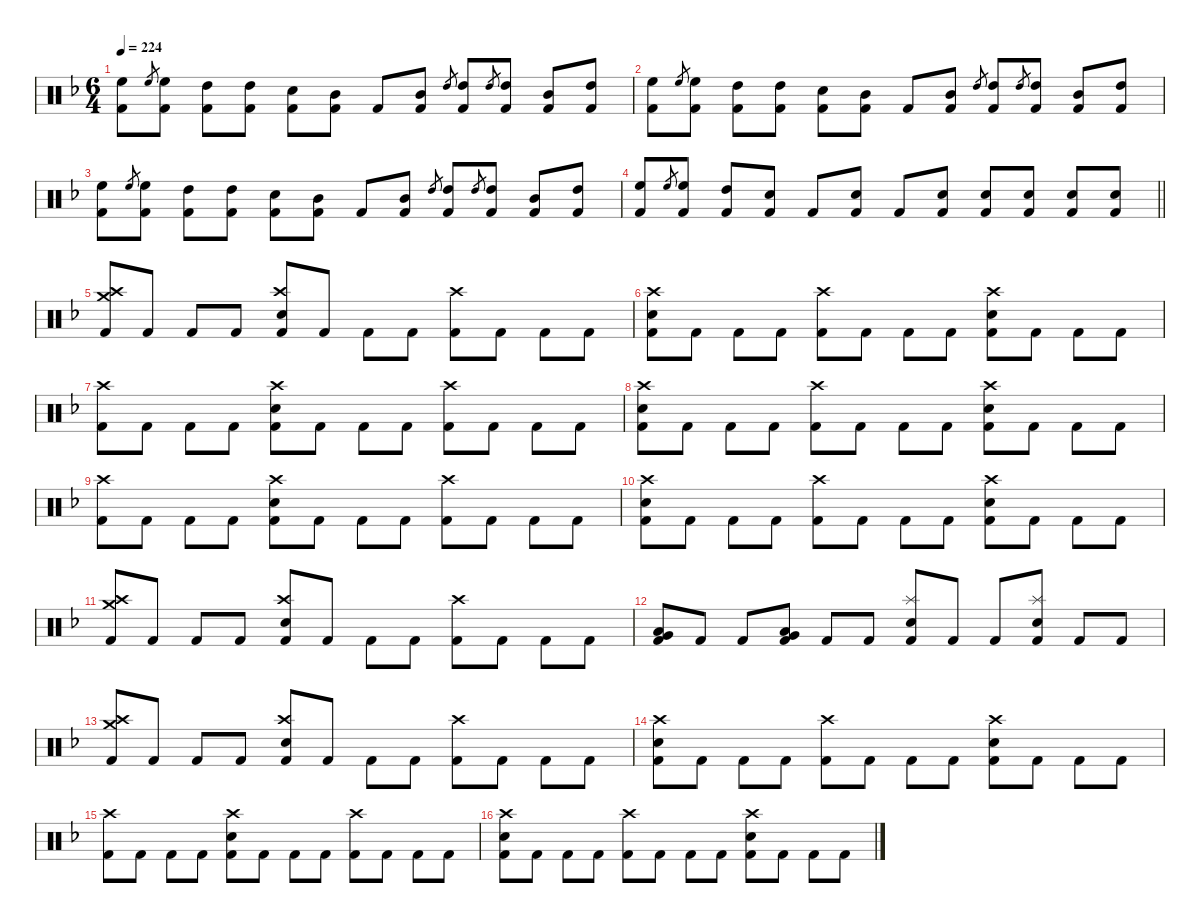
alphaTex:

\hideDynamics
\bracketExtendMode nobrackets
\singleTrackTrackNamePolicy hidden
\multiTrackTrackNamePolicy hidden
\firstSystemTrackNameMode fullname
\firstSystemTrackNameOrientation horizontal
\otherSystemsTrackNameOrientation horizontal
\track ("Drumkit" "Drums") {defaultSystemsLayout 4 instrument percussion}
\staff {score}
\articulation defaults
\ts (6 4)
\tempo 224
\clef neutral
\ks dminor
("High Floor Tom (hit)"{acc forcenatural} "Kick (hit) 2"{acc forcenatural}).8{dy f beam Down} "High Floor Tom (hit)"{acc forcenatural}.8{gr dy mf beam Up} ("High Floor Tom (hit)"{acc forcenatural} "Kick (hit) 2"{acc forcenatural}).8{dy f beam Down} ("High Tom (hit)"{acc forcenatural} "Kick (hit) 2"{acc forcenatural}).8{beam Down} ("High Tom (hit)"{acc forcenatural} "Kick (hit) 2"{acc forcenatural}).8{beam Down} ("Snare (hit) 2"{acc forcenatural} "Kick (hit) 2"{acc forcenatural}).8{beam Down} ("Mid Tom (hit)"{acc forcenatural} "Kick (hit) 2"{acc forcenatural}).8{beam Down} "Kick (hit) 2"{acc forcenatural}.8{beam Up} ("Mid Tom (hit)"{acc forcenatural} "Kick (hit) 2"{acc forcenatural}).8{beam Up} "High Tom (hit)"{acc forcenatural}.8{gr dy mf beam Up} ("High Tom (hit)"{acc forcenatural} "Kick (hit) 2"{acc forcenatural}).8{dy f beam Up} "High Tom (hit)"{acc forcenatural}.8{gr dy mf beam Up} ("High Tom (hit)"{acc forcenatural} "Kick (hit) 2"{acc forcenatural}).8{dy f beam Up} ("Mid Tom (hit)"{acc forcenatural} "Kick (hit) 2"{acc forcenatural}).8{beam Up} ("High Tom (hit)"{acc forcenatural} "Kick (hit) 2"{acc forcenatural}).8{beam Up} |
("High Floor Tom (hit)"{acc forcenatural} "Kick (hit) 2"{acc forcenatural}).8{beam Down} "High Floor Tom (hit)"{acc forcenatural}.8{gr dy mf beam Up} ("High Floor Tom (hit)"{acc forcenatural} "Kick (hit) 2"{acc forcenatural}).8{dy f beam Down} ("High Tom (hit)"{acc forcenatural} "Kick (hit) 2"{acc forcenatural}).8{beam Down} ("High Tom (hit)"{acc forcenatural} "Kick (hit) 2"{acc forcenatural}).8{beam Down} ("Snare (hit) 2"{acc forcenatural} "Kick (hit) 2"{acc forcenatural}).8{beam Down} ("Mid Tom (hit)"{acc forcenatural} "Kick (hit) 2"{acc forcenatural}).8{beam Down} "Kick (hit) 2"{acc forcenatural}.8{beam Up} ("Mid Tom (hit)"{acc forcenatural} "Kick (hit) 2"{acc forcenatural}).8{beam Up} "High Tom (hit)"{acc forcenatural}.8{gr dy mf beam Up} ("High Tom (hit)"{acc forcenatural} "Kick (hit) 2"{acc forcenatural}).8{dy f beam Up} "High Tom (hit)"{acc forcenatural}.8{gr dy mf beam Up} ("High Tom (hit)"{acc forcenatural} "Kick (hit) 2"{acc forcenatural}).8{dy f beam Up} ("Mid Tom (hit)"{acc forcenatural} "Kick (hit) 2"{acc forcenatural}).8{beam Up} ("High Tom (hit)"{acc forcenatural} "Kick (hit) 2"{acc forcenatural}).8{beam Up} |
("High Floor Tom (hit)"{acc forcenatural} "Kick (hit) 2"{acc forcenatural}).8{beam Down} "High Floor Tom (hit)"{acc forcenatural}.8{gr dy mf beam Up} ("High Floor Tom (hit)"{acc forcenatural} "Kick (hit) 2"{acc forcenatural}).8{dy f beam Down} ("High Tom (hit)"{acc forcenatural} "Kick (hit) 2"{acc forcenatural}).8{beam Down} ("High Tom (hit)"{acc forcenatural} "Kick (hit) 2"{acc forcenatural}).8{beam Down} ("Snare (hit) 2"{acc forcenatural} "Kick (hit) 2"{acc forcenatural}).8{beam Down} ("Mid Tom (hit)"{acc forcenatural} "Kick (hit) 2"{acc forcenatural}).8{beam Down} "Kick (hit) 2"{acc forcenatural}.8{beam Up} ("Mid Tom (hit)"{acc forcenatural} "Kick (hit) 2"{acc forcenatural}).8{beam Up} "High Tom (hit)"{acc forcenatural}.8{gr dy mf beam Up} ("High Tom (hit)"{acc forcenatural} "Kick (hit) 2"{acc forcenatural}).8{dy f beam Up} "High Tom (hit)"{acc forcenatural}.8{gr dy mf beam Up} ("High Tom (hit)"{acc forcenatural} "Kick (hit) 2"{acc forcenatural}).8{dy f beam Up} ("Mid Tom (hit)"{acc forcenatural} "Kick (hit) 2"{acc forcenatural}).8{beam Up} ("High Tom (hit)"{acc forcenatural} "Kick (hit) 2"{acc forcenatural}).8{beam Up} |
\barLineRight lightlight
("High Floor Tom (hit)"{acc forcenatural} "Kick (hit) 2"{acc forcenatural}).8{beam Up} "High Floor Tom (hit)"{acc forcenatural}.8{gr dy mf beam Up} ("High Floor Tom (hit)"{acc forcenatural} "Kick (hit) 2"{acc forcenatural}).8{dy f beam Up} ("High Tom (hit)"{acc forcenatural} "Kick (hit) 2"{acc forcenatural}).8{beam Up} ("Snare (hit) 2"{acc forcenatural} "Kick (hit) 2"{acc forcenatural}).8{beam Up} "Kick (hit) 2"{acc forcenatural}.8{beam Up} ("Snare (hit) 2"{acc forcenatural} "Kick (hit) 2"{acc forcenatural}).8{beam Up} "Kick (hit) 2"{acc forcenatural}.8{beam Up} ("Snare (hit) 2"{acc forcenatural} "Kick (hit) 2"{acc forcenatural}).8{beam Up} ("Snare (hit) 2"{acc forcenatural} "Kick (hit) 2"{acc forcenatural}).8{beam Up} ("Snare (hit) 2"{acc forcenatural} "Kick (hit) 2"{acc forcenatural}).8{beam Up} ("Snare (hit) 2"{acc forcenatural} "Kick (hit) 2"{acc forcenatural}).8{beam Up} ("Snare (hit) 2"{acc forcenatural} "Kick (hit) 2"{acc forcenatural}).8{beam Up} |
("Crash medium (hit)"{acc forcenatural} "Crash high (hit)"{acc forcenatural} "Kick (hit) 2"{acc forcenatural}).8{beam Up} "Kick (hit) 2"{acc forcenatural}.8{beam Up} "Kick (hit) 2"{acc forcenatural}.8{beam Up} "Kick (hit) 2"{acc forcenatural}.8{beam Up} ("Crash high (hit)"{acc forcenatural} "Snare (hit) 2"{acc forcenatural} "Kick (hit) 2"{acc forcenatural}).8{beam Up} "Kick (hit) 2"{acc forcenatural}.8{beam Up} "Kick (hit) 2"{acc forcenatural}.8{beam Down} "Kick (hit) 2"{acc forcenatural}.8{beam Down} ("Crash high (hit)"{acc forcenatural} "Kick (hit) 2"{acc forcenatural}).8{beam Down} "Kick (hit) 2"{acc forcenatural}.8{beam Down} "Kick (hit) 2"{acc forcenatural}.8{beam Down} "Kick (hit) 2"{acc forcenatural}.8{beam Down} |
("Crash high (hit)"{acc forcenatural} "Snare (hit) 2"{acc forcenatural} "Kick (hit) 2"{acc forcenatural}).8{beam Down} "Kick (hit) 2"{acc forcenatural}.8{beam Down} "Kick (hit) 2"{acc forcenatural}.8{beam Down} "Kick (hit) 2"{acc forcenatural}.8{beam Down} ("Crash high (hit)"{acc forcenatural} "Kick (hit) 2"{acc forcenatural}).8{beam Down} "Kick (hit) 2"{acc forcenatural}.8{beam Down} "Kick (hit) 2"{acc forcenatural}.8{beam Down} "Kick (hit) 2"{acc forcenatural}.8{beam Down} ("Crash high (hit)"{acc forcenatural} "Snare (hit) 2"{acc forcenatural} "Kick (hit) 2"{acc forcenatural}).8{beam Down} "Kick (hit) 2"{acc forcenatural}.8{beam Down} "Kick (hit) 2"{acc forcenatural}.8{beam Down} "Kick (hit) 2"{acc forcenatural}.8{beam Down} |
("Crash high (hit)"{acc forcenatural} "Kick (hit) 2"{acc forcenatural}).8{beam Down} "Kick (hit) 2"{acc forcenatural}.8{beam Down} "Kick (hit) 2"{acc forcenatural}.8{beam Down} "Kick (hit) 2"{acc forcenatural}.8{beam Down} ("Crash high (hit)"{acc forcenatural} "Snare (hit) 2"{acc forcenatural} "Kick (hit) 2"{acc forcenatural}).8{beam Down} "Kick (hit) 2"{acc forcenatural}.8{beam Down} "Kick (hit) 2"{acc forcenatural}.8{beam Down} "Kick (hit) 2"{acc forcenatural}.8{beam Down} ("Crash high (hit)"{acc forcenatural} "Kick (hit) 2"{acc forcenatural}).8{beam Down} "Kick (hit) 2"{acc forcenatural}.8{beam Down} "Kick (hit) 2"{acc forcenatural}.8{beam Down} "Kick (hit) 2"{acc forcenatural}.8{beam Down} |
("Crash high (hit)"{acc forcenatural} "Snare (hit) 2"{acc forcenatural} "Kick (hit) 2"{acc forcenatural}).8{beam Down} "Kick (hit) 2"{acc forcenatural}.8{beam Down} "Kick (hit) 2"{acc forcenatural}.8{beam Down} "Kick (hit) 2"{acc forcenatural}.8{beam Down} ("Crash high (hit)"{acc forcenatural} "Kick (hit) 2"{acc forcenatural}).8{beam Down} "Kick (hit) 2"{acc forcenatural}.8{beam Down} "Kick (hit) 2"{acc forcenatural}.8{beam Down} "Kick (hit) 2"{acc forcenatural}.8{beam Down} ("Crash high (hit)"{acc forcenatural} "Snare (hit) 2"{acc forcenatural} "Kick (hit) 2"{acc forcenatural}).8{beam Down} "Kick (hit) 2"{acc forcenatural}.8{beam Down} "Kick (hit) 2"{acc forcenatural}.8{beam Down} "Kick (hit) 2"{acc forcenatural}.8{beam Down} |
("Crash high (hit)"{acc forcenatural} "Kick (hit) 2"{acc forcenatural}).8{beam Down} "Kick (hit) 2"{acc forcenatural}.8{beam Down} "Kick (hit) 2"{acc forcenatural}.8{beam Down} "Kick (hit) 2"{acc forcenatural}.8{beam Down} ("Crash high (hit)"{acc forcenatural} "Snare (hit) 2"{acc forcenatural} "Kick (hit) 2"{acc forcenatural}).8{beam Down} "Kick (hit) 2"{acc forcenatural}.8{beam Down} "Kick (hit) 2"{acc forcenatural}.8{beam Down} "Kick (hit) 2"{acc forcenatural}.8{beam Down} ("Crash high (hit)"{acc forcenatural} "Kick (hit) 2"{acc forcenatural}).8{beam Down} "Kick (hit) 2"{acc forcenatural}.8{beam Down} "Kick (hit) 2"{acc forcenatural}.8{beam Down} "Kick (hit) 2"{acc forcenatural}.8{beam Down} |
("Crash high (hit)"{acc forcenatural} "Snare (hit) 2"{acc forcenatural} "Kick (hit) 2"{acc forcenatural}).8{beam Down} "Kick (hit) 2"{acc forcenatural}.8{beam Down} "Kick (hit) 2"{acc forcenatural}.8{beam Down} "Kick (hit) 2"{acc forcenatural}.8{beam Down} ("Crash high (hit)"{acc forcenatural} "Kick (hit) 2"{acc forcenatural}).8{beam Down} "Kick (hit) 2"{acc forcenatural}.8{beam Down} "Kick (hit) 2"{acc forcenatural}.8{beam Down} "Kick (hit) 2"{acc forcenatural}.8{beam Down} ("Crash high (hit)"{acc forcenatural} "Snare (hit) 2"{acc forcenatural} "Kick (hit) 2"{acc forcenatural}).8{beam Down} "Kick (hit) 2"{acc forcenatural}.8{beam Down} "Kick (hit) 2"{acc forcenatural}.8{beam Down} "Kick (hit) 2"{acc forcenatural}.8{beam Down} |
("Crash medium (hit)"{acc forcenatural} "Crash high (hit)"{acc forcenatural} "Kick (hit) 2"{acc forcenatural}).8{beam Up} "Kick (hit) 2"{acc forcenatural}.8{beam Up} "Kick (hit) 2"{acc forcenatural}.8{beam Up} "Kick (hit) 2"{acc forcenatural}.8{beam Up} ("Crash high (hit)"{acc forcenatural} "Snare (hit) 2"{acc forcenatural} "Kick (hit) 2"{acc forcenatural}).8{beam Up} "Kick (hit) 2"{acc forcenatural}.8{beam Up} "Kick (hit) 2"{acc forcenatural}.8{beam Down} "Kick (hit) 2"{acc forcenatural}.8{beam Down} ("Crash high (hit)"{acc forcenatural} "Kick (hit) 2"{acc forcenatural}).8{beam Down} "Kick (hit) 2"{acc forcenatural}.8{beam Down} "Kick (hit) 2"{acc forcenatural}.8{beam Down} "Kick (hit) 2"{acc forcenatural}.8{beam Down} |
("Very Low Tom (hit)"{acc forcenatural} "Low Tom (hit)"{acc forcenatural} "Kick (hit) 2"{acc forcenatural}).8{beam Up} "Kick (hit) 2"{acc forcenatural}.8{beam Up} "Kick (hit) 2"{acc forcenatural}.8{beam Up} ("Very Low Tom (hit)"{acc forcenatural} "Low Tom (hit)"{acc forcenatural} "Kick (hit) 2"{acc forcenatural}).8{beam Up} "Kick (hit) 2"{acc forcenatural}.8{beam Up} "Kick (hit) 2"{acc forcenatural}.8{beam Up} ("Splash (hit)"{acc forcenatural} "Snare (hit) 2"{acc forcenatural} "Kick (hit) 2"{acc forcenatural}).8{beam Up} "Kick (hit) 2"{acc forcenatural}.8{beam Up} "Kick (hit) 2"{acc forcenatural}.8{beam Up} ("Splash (hit)"{acc forcenatural} "Snare (hit) 2"{acc forcenatural} "Kick (hit) 2"{acc forcenatural}).8{beam Up} "Kick (hit) 2"{acc forcenatural}.8{beam Up} "Kick (hit) 2"{acc forcenatural}.8{beam Up} |
("Crash medium (hit)"{acc forcenatural} "Crash high (hit)"{acc forcenatural} "Kick (hit) 2"{acc forcenatural}).8{beam Up} "Kick (hit) 2"{acc forcenatural}.8{beam Up} "Kick (hit) 2"{acc forcenatural}.8{beam Up} "Kick (hit) 2"{acc forcenatural}.8{beam Up} ("Crash high (hit)"{acc forcenatural} "Snare (hit) 2"{acc forcenatural} "Kick (hit) 2"{acc forcenatural}).8{beam Up} "Kick (hit) 2"{acc forcenatural}.8{beam Up} "Kick (hit) 2"{acc forcenatural}.8{beam Down} "Kick (hit) 2"{acc forcenatural}.8{beam Down} ("Crash high (hit)"{acc forcenatural} "Kick (hit) 2"{acc forcenatural}).8{beam Down} "Kick (hit) 2"{acc forcenatural}.8{beam Down} "Kick (hit) 2"{acc forcenatural}.8{beam Down} "Kick (hit) 2"{acc forcenatural}.8{beam Down} |
("Crash high (hit)"{acc forcenatural} "Snare (hit) 2"{acc forcenatural} "Kick (hit) 2"{acc forcenatural}).8{beam Down} "Kick (hit) 2"{acc forcenatural}.8{beam Down} "Kick (hit) 2"{acc forcenatural}.8{beam Down} "Kick (hit) 2"{acc forcenatural}.8{beam Down} ("Crash high (hit)"{acc forcenatural} "Kick (hit) 2"{acc forcenatural}).8{beam Down} "Kick (hit) 2"{acc forcenatural}.8{beam Down} "Kick (hit) 2"{acc forcenatural}.8{beam Down} "Kick (hit) 2"{acc forcenatural}.8{beam Down} ("Crash high (hit)"{acc forcenatural} "Snare (hit) 2"{acc forcenatural} "Kick (hit) 2"{acc forcenatural}).8{beam Down} "Kick (hit) 2"{acc forcenatural}.8{beam Down} "Kick (hit) 2"{acc forcenatural}.8{beam Down} "Kick (hit) 2"{acc forcenatural}.8{beam Down} |
("Crash high (hit)"{acc forcenatural} "Kick (hit) 2"{acc forcenatural}).8{beam Down} "Kick (hit) 2"{acc forcenatural}.8{beam Down} "Kick (hit) 2"{acc forcenatural}.8{beam Down} "Kick (hit) 2"{acc forcenatural}.8{beam Down} ("Crash high (hit)"{acc forcenatural} "Snare (hit) 2"{acc forcenatural} "Kick (hit) 2"{acc forcenatural}).8{beam Down} "Kick (hit) 2"{acc forcenatural}.8{beam Down} "Kick (hit) 2"{acc forcenatural}.8{beam Down} "Kick (hit) 2"{acc forcenatural}.8{beam Down} ("Crash high (hit)"{acc forcenatural} "Kick (hit) 2"{acc forcenatural}).8{beam Down} "Kick (hit) 2"{acc forcenatural}.8{beam Down} "Kick (hit) 2"{acc forcenatural}.8{beam Down} "Kick (hit) 2"{acc forcenatural}.8{beam Down} |
("Crash high (hit)"{acc forcenatural} "Snare (hit) 2"{acc forcenatural} "Kick (hit) 2"{acc forcenatural}).8{beam Down} "Kick (hit) 2"{acc forcenatural}.8{beam Down} "Kick (hit) 2"{acc forcenatural}.8{beam Down} "Kick (hit) 2"{acc forcenatural}.8{beam Down} ("Crash high (hit)"{acc forcenatural} "Kick (hit) 2"{acc forcenatural}).8{beam Down} "Kick (hit) 2"{acc forcenatural}.8{beam Down} "Kick (hit) 2"{acc forcenatural}.8{beam Down} "Kick (hit) 2"{acc forcenatural}.8{beam Down} ("Crash high (hit)"{acc forcenatural} "Snare (hit) 2"{acc forcenatural} "Kick (hit) 2"{acc forcenatural}).8{beam Down} "Kick (hit) 2"{acc forcenatural}.8{beam Down} "Kick (hit) 2"{acc forcenatural}.8{beam Down} "Kick (hit) 2"{acc forcenatural}.8{beam Down}
